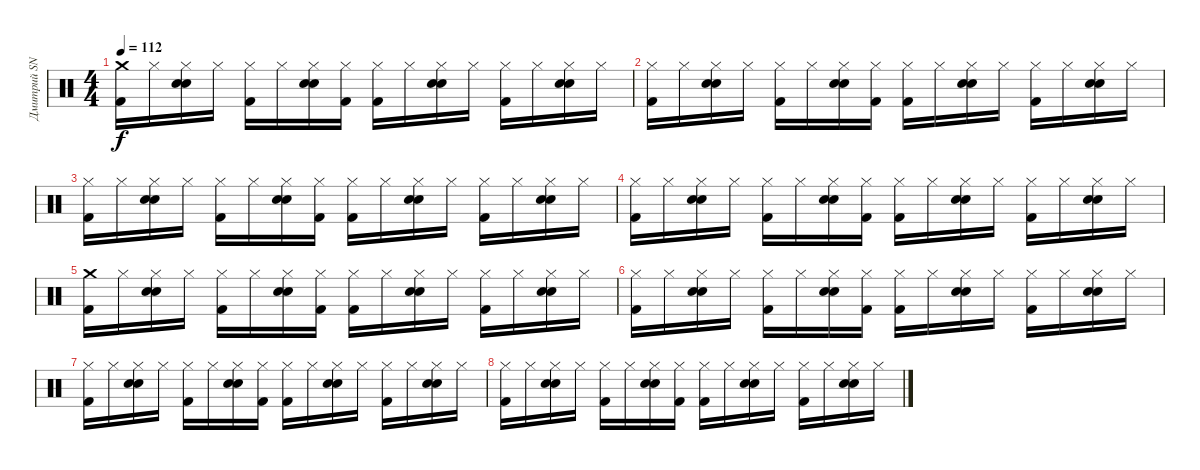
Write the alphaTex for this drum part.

\track ("Дмитрий SNAKE Хакимов" "Дмитрий SN") {instrument percussion}
\staff {score}
\articulation defaults
\ts (4 4)
\tempo 112
\clef neutral
\ks c
("Crash medium (hit)" "Kick (hit) 2").16{dy f} "Hi-Hat (closed)".16 ("Hi-Hat (closed)" "Hand Clap (hit)" "Snare (hit) 2").16 "Hi-Hat (closed)".16 ("Hi-Hat (closed)" "Kick (hit) 2").16 "Hi-Hat (closed)".16 ("Hi-Hat (closed)" "Hand Clap (hit)" "Snare (hit) 2").16 ("Hi-Hat (closed)" "Kick (hit) 2").16 ("Hi-Hat (closed)" "Kick (hit) 2").16 "Hi-Hat (closed)".16 ("Hi-Hat (closed)" "Hand Clap (hit)" "Snare (hit) 2").16 "Hi-Hat (closed)".16 ("Hi-Hat (closed)" "Kick (hit) 2").16 "Hi-Hat (closed)".16 ("Hi-Hat (closed)" "Hand Clap (hit)" "Snare (hit) 2").16 "Hi-Hat (closed)".16 |
("Hi-Hat (closed)" "Kick (hit) 2").16 "Hi-Hat (closed)".16 ("Hi-Hat (closed)" "Hand Clap (hit)" "Snare (hit) 2").16 "Hi-Hat (closed)".16 ("Hi-Hat (closed)" "Kick (hit) 2").16 "Hi-Hat (closed)".16 ("Hi-Hat (closed)" "Hand Clap (hit)" "Snare (hit) 2").16 ("Hi-Hat (closed)" "Kick (hit) 2").16 ("Hi-Hat (closed)" "Kick (hit) 2").16 "Hi-Hat (closed)".16 ("Hi-Hat (closed)" "Hand Clap (hit)" "Snare (hit) 2").16 "Hi-Hat (closed)".16 ("Hi-Hat (closed)" "Kick (hit) 2").16 "Hi-Hat (closed)".16 ("Hi-Hat (closed)" "Hand Clap (hit)" "Snare (hit) 2").16 "Hi-Hat (closed)".16 |
("Hi-Hat (closed)" "Kick (hit) 2").16 "Hi-Hat (closed)".16 ("Hi-Hat (closed)" "Hand Clap (hit)" "Snare (hit) 2").16 "Hi-Hat (closed)".16 ("Hi-Hat (closed)" "Kick (hit) 2").16 "Hi-Hat (closed)".16 ("Hi-Hat (closed)" "Hand Clap (hit)" "Snare (hit) 2").16 ("Hi-Hat (closed)" "Kick (hit) 2").16 ("Hi-Hat (closed)" "Kick (hit) 2").16 "Hi-Hat (closed)".16 ("Hi-Hat (closed)" "Hand Clap (hit)" "Snare (hit) 2").16 "Hi-Hat (closed)".16 ("Hi-Hat (closed)" "Kick (hit) 2").16 "Hi-Hat (closed)".16 ("Hi-Hat (closed)" "Hand Clap (hit)" "Snare (hit) 2").16 "Hi-Hat (closed)".16 |
("Hi-Hat (closed)" "Kick (hit) 2").16 "Hi-Hat (closed)".16 ("Hi-Hat (closed)" "Hand Clap (hit)" "Snare (hit) 2").16 "Hi-Hat (closed)".16 ("Hi-Hat (closed)" "Kick (hit) 2").16 "Hi-Hat (closed)".16 ("Hi-Hat (closed)" "Hand Clap (hit)" "Snare (hit) 2").16 ("Hi-Hat (closed)" "Kick (hit) 2").16 ("Hi-Hat (closed)" "Kick (hit) 2").16 "Hi-Hat (closed)".16 ("Hi-Hat (closed)" "Hand Clap (hit)" "Snare (hit) 2").16 "Hi-Hat (closed)".16 ("Hi-Hat (closed)" "Kick (hit) 2").16 "Hi-Hat (closed)".16 ("Hi-Hat (closed)" "Hand Clap (hit)" "Snare (hit) 2").16 "Hi-Hat (closed)".16 |
("Crash medium (hit)" "Kick (hit) 2").16 "Hi-Hat (closed)".16 ("Hi-Hat (closed)" "Hand Clap (hit)" "Snare (hit) 2").16 "Hi-Hat (closed)".16 ("Hi-Hat (closed)" "Kick (hit) 2").16 "Hi-Hat (closed)".16 ("Hi-Hat (closed)" "Hand Clap (hit)" "Snare (hit) 2").16 ("Hi-Hat (closed)" "Kick (hit) 2").16 ("Hi-Hat (closed)" "Kick (hit) 2").16 "Hi-Hat (closed)".16 ("Hi-Hat (closed)" "Hand Clap (hit)" "Snare (hit) 2").16 "Hi-Hat (closed)".16 ("Hi-Hat (closed)" "Kick (hit) 2").16 "Hi-Hat (closed)".16 ("Hi-Hat (closed)" "Hand Clap (hit)" "Snare (hit) 2").16 "Hi-Hat (closed)".16 |
("Hi-Hat (closed)" "Kick (hit) 2").16 "Hi-Hat (closed)".16 ("Hi-Hat (closed)" "Hand Clap (hit)" "Snare (hit) 2").16 "Hi-Hat (closed)".16 ("Hi-Hat (closed)" "Kick (hit) 2").16 "Hi-Hat (closed)".16 ("Hi-Hat (closed)" "Hand Clap (hit)" "Snare (hit) 2").16 ("Hi-Hat (closed)" "Kick (hit) 2").16 ("Hi-Hat (closed)" "Kick (hit) 2").16 "Hi-Hat (closed)".16 ("Hi-Hat (closed)" "Hand Clap (hit)" "Snare (hit) 2").16 "Hi-Hat (closed)".16 ("Hi-Hat (closed)" "Kick (hit) 2").16 "Hi-Hat (closed)".16 ("Hi-Hat (closed)" "Hand Clap (hit)" "Snare (hit) 2").16 "Hi-Hat (closed)".16 |
("Hi-Hat (closed)" "Kick (hit) 2").16 "Hi-Hat (closed)".16 ("Hi-Hat (closed)" "Hand Clap (hit)" "Snare (hit) 2").16 "Hi-Hat (closed)".16 ("Hi-Hat (closed)" "Kick (hit) 2").16 "Hi-Hat (closed)".16 ("Hi-Hat (closed)" "Hand Clap (hit)" "Snare (hit) 2").16 ("Hi-Hat (closed)" "Kick (hit) 2").16 ("Hi-Hat (closed)" "Kick (hit) 2").16 "Hi-Hat (closed)".16 ("Hi-Hat (closed)" "Hand Clap (hit)" "Snare (hit) 2").16 "Hi-Hat (closed)".16 ("Hi-Hat (closed)" "Kick (hit) 2").16 "Hi-Hat (closed)".16 ("Hi-Hat (closed)" "Hand Clap (hit)" "Snare (hit) 2").16 "Hi-Hat (closed)".16 |
("Hi-Hat (closed)" "Kick (hit) 2").16 "Hi-Hat (closed)".16 ("Hi-Hat (closed)" "Hand Clap (hit)" "Snare (hit) 2").16 "Hi-Hat (closed)".16 ("Hi-Hat (closed)" "Kick (hit) 2").16 "Hi-Hat (closed)".16 ("Hi-Hat (closed)" "Hand Clap (hit)" "Snare (hit) 2").16 ("Hi-Hat (closed)" "Kick (hit) 2").16 ("Hi-Hat (closed)" "Kick (hit) 2").16 "Hi-Hat (closed)".16 ("Hi-Hat (closed)" "Hand Clap (hit)" "Snare (hit) 2").16 "Hi-Hat (closed)".16 ("Hi-Hat (closed)" "Kick (hit) 2").16 "Hi-Hat (closed)".16 ("Hi-Hat (closed)" "Hand Clap (hit)" "Snare (hit) 2").16 "Hi-Hat (closed)".16
